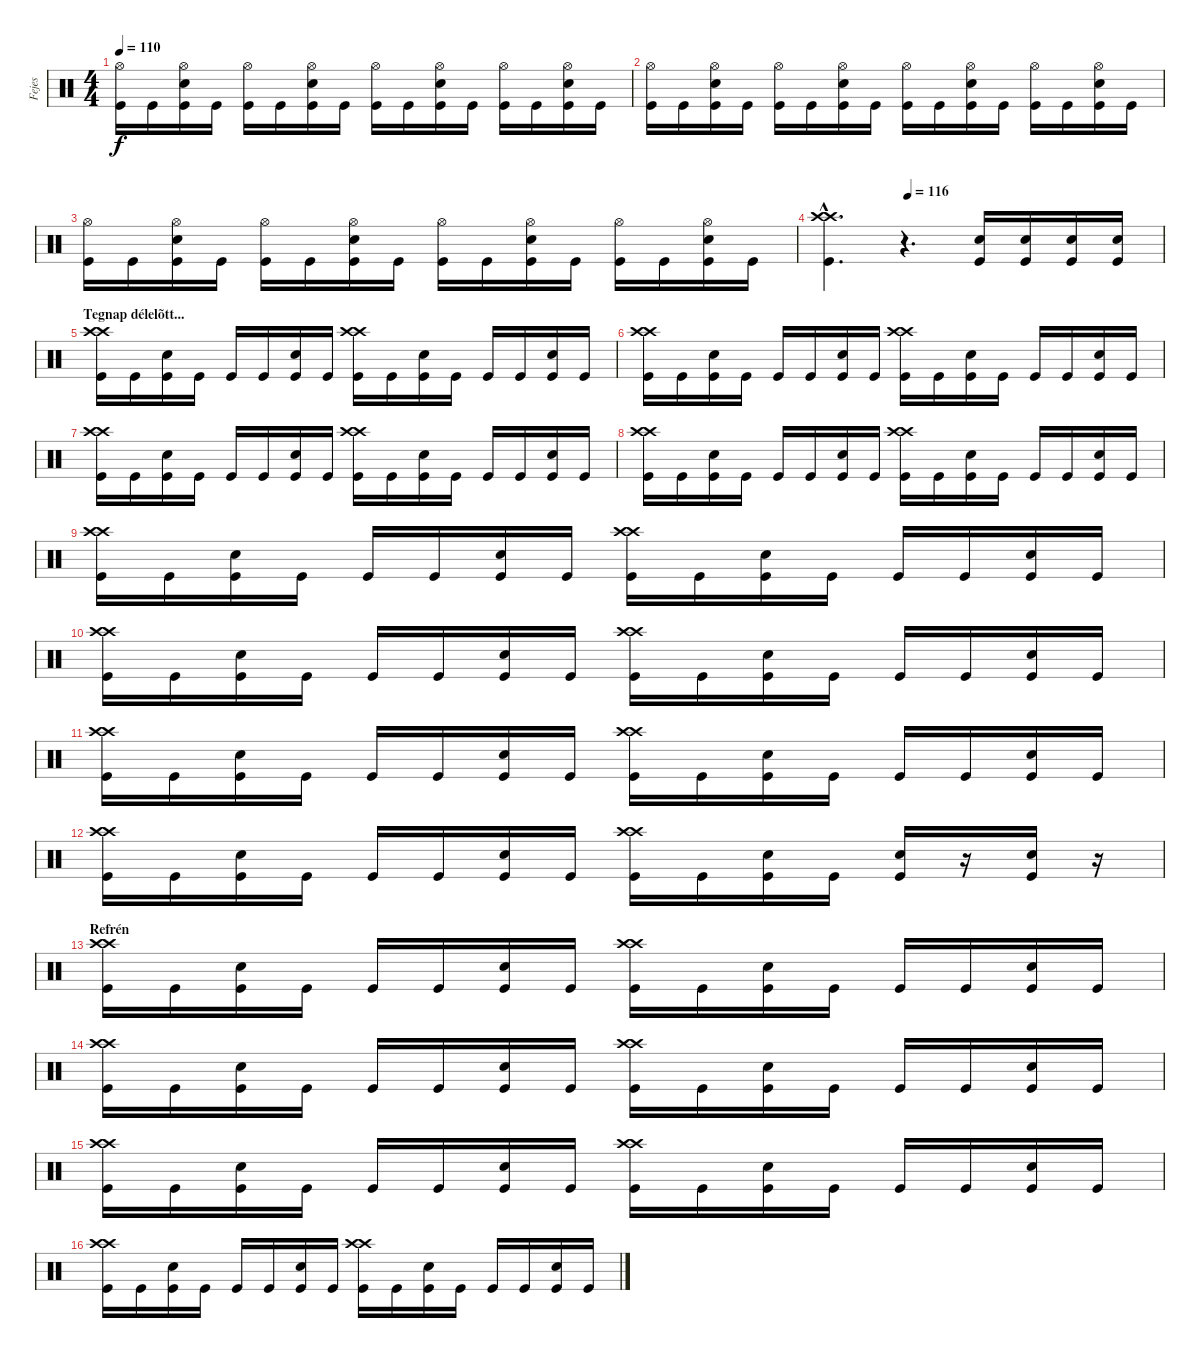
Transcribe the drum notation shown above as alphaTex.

\track ("Fejes" "Fejes") {instrument percussion}
\staff {score}
\articulation defaults
\ts (4 4)
\tempo 110
\clef neutral
\ks c
("Hi-Hat (open)" "Kick (hit)").16{dy f} "Kick (hit)".16 ("Hi-Hat (open)" "Snare (hit) 2" "Kick (hit)").16 "Kick (hit)".16 ("Hi-Hat (open)" "Kick (hit)").16 "Kick (hit)".16 ("Hi-Hat (open)" "Snare (hit) 2" "Kick (hit)").16 "Kick (hit)".16 ("Hi-Hat (open)" "Kick (hit)").16 "Kick (hit)".16 ("Hi-Hat (open)" "Snare (hit) 2" "Kick (hit)").16 "Kick (hit)".16 ("Hi-Hat (open)" "Kick (hit)").16 "Kick (hit)".16 ("Hi-Hat (open)" "Snare (hit) 2" "Kick (hit)").16 "Kick (hit)".16 |
("Hi-Hat (open)" "Kick (hit)").16 "Kick (hit)".16 ("Hi-Hat (open)" "Snare (hit) 2" "Kick (hit)").16 "Kick (hit)".16 ("Hi-Hat (open)" "Kick (hit)").16 "Kick (hit)".16 ("Hi-Hat (open)" "Snare (hit) 2" "Kick (hit)").16 "Kick (hit)".16 ("Hi-Hat (open)" "Kick (hit)").16 "Kick (hit)".16 ("Hi-Hat (open)" "Snare (hit) 2" "Kick (hit)").16 "Kick (hit)".16 ("Hi-Hat (open)" "Kick (hit)").16 "Kick (hit)".16 ("Hi-Hat (open)" "Snare (hit) 2" "Kick (hit)").16 "Kick (hit)".16 |
("Hi-Hat (open)" "Kick (hit)").16 "Kick (hit)".16 ("Hi-Hat (open)" "Snare (hit) 2" "Kick (hit)").16 "Kick (hit)".16 ("Hi-Hat (open)" "Kick (hit)").16 "Kick (hit)".16 ("Hi-Hat (open)" "Snare (hit) 2" "Kick (hit)").16 "Kick (hit)".16 ("Hi-Hat (open)" "Kick (hit)").16 "Kick (hit)".16 ("Hi-Hat (open)" "Snare (hit) 2" "Kick (hit)").16 "Kick (hit)".16 ("Hi-Hat (open)" "Kick (hit)").16 "Kick (hit)".16 ("Hi-Hat (open)" "Snare (hit) 2" "Kick (hit)").16 "Kick (hit)".16 |
\tempo (116 0.25)
("Crash high (hit)"{hac} "Crash high (hit)"{hac} "Kick (hit)"{hac}).4{d} r.4{d} ("Snare (hit) 2" "Kick (hit)").16 ("Snare (hit) 2" "Kick (hit)").16 ("Snare (hit) 2" "Kick (hit)").16 ("Snare (hit) 2" "Kick (hit)").16 |
\section ("" "Tegnap délelõtt...")
("Crash high (hit)" "Crash high (hit)" "Kick (hit)").16 "Kick (hit)".16 ("Snare (hit) 2" "Kick (hit)").16 "Kick (hit)".16 "Kick (hit)".16 "Kick (hit)".16 ("Snare (hit) 2" "Kick (hit)").16 "Kick (hit)".16 ("Crash high (hit)" "Crash high (hit)" "Kick (hit)").16 "Kick (hit)".16 ("Snare (hit) 2" "Kick (hit)").16 "Kick (hit)".16 "Kick (hit)".16 "Kick (hit)".16 ("Snare (hit) 2" "Kick (hit)").16 "Kick (hit)".16 |
("Crash high (hit)" "Crash high (hit)" "Kick (hit)").16 "Kick (hit)".16 ("Snare (hit) 2" "Kick (hit)").16 "Kick (hit)".16 "Kick (hit)".16 "Kick (hit)".16 ("Snare (hit) 2" "Kick (hit)").16 "Kick (hit)".16 ("Crash high (hit)" "Crash high (hit)" "Kick (hit)").16 "Kick (hit)".16 ("Snare (hit) 2" "Kick (hit)").16 "Kick (hit)".16 "Kick (hit)".16 "Kick (hit)".16 ("Snare (hit) 2" "Kick (hit)").16 "Kick (hit)".16 |
("Crash high (hit)" "Crash high (hit)" "Kick (hit)").16 "Kick (hit)".16 ("Snare (hit) 2" "Kick (hit)").16 "Kick (hit)".16 "Kick (hit)".16 "Kick (hit)".16 ("Snare (hit) 2" "Kick (hit)").16 "Kick (hit)".16 ("Crash high (hit)" "Crash high (hit)" "Kick (hit)").16 "Kick (hit)".16 ("Snare (hit) 2" "Kick (hit)").16 "Kick (hit)".16 "Kick (hit)".16 "Kick (hit)".16 ("Snare (hit) 2" "Kick (hit)").16 "Kick (hit)".16 |
("Crash high (hit)" "Crash high (hit)" "Kick (hit)").16 "Kick (hit)".16 ("Snare (hit) 2" "Kick (hit)").16 "Kick (hit)".16 "Kick (hit)".16 "Kick (hit)".16 ("Snare (hit) 2" "Kick (hit)").16 "Kick (hit)".16 ("Crash high (hit)" "Crash high (hit)" "Kick (hit)").16 "Kick (hit)".16 ("Snare (hit) 2" "Kick (hit)").16 "Kick (hit)".16 "Kick (hit)".16 "Kick (hit)".16 ("Snare (hit) 2" "Kick (hit)").16 "Kick (hit)".16 |
("Crash high (hit)" "Crash high (hit)" "Kick (hit)").16 "Kick (hit)".16 ("Snare (hit) 2" "Kick (hit)").16 "Kick (hit)".16 "Kick (hit)".16 "Kick (hit)".16 ("Snare (hit) 2" "Kick (hit)").16 "Kick (hit)".16 ("Crash high (hit)" "Crash high (hit)" "Kick (hit)").16 "Kick (hit)".16 ("Snare (hit) 2" "Kick (hit)").16 "Kick (hit)".16 "Kick (hit)".16 "Kick (hit)".16 ("Snare (hit) 2" "Kick (hit)").16 "Kick (hit)".16 |
("Crash high (hit)" "Crash high (hit)" "Kick (hit)").16 "Kick (hit)".16 ("Snare (hit) 2" "Kick (hit)").16 "Kick (hit)".16 "Kick (hit)".16 "Kick (hit)".16 ("Snare (hit) 2" "Kick (hit)").16 "Kick (hit)".16 ("Crash high (hit)" "Crash high (hit)" "Kick (hit)").16 "Kick (hit)".16 ("Snare (hit) 2" "Kick (hit)").16 "Kick (hit)".16 "Kick (hit)".16 "Kick (hit)".16 ("Snare (hit) 2" "Kick (hit)").16 "Kick (hit)".16 |
("Crash high (hit)" "Crash high (hit)" "Kick (hit)").16 "Kick (hit)".16 ("Snare (hit) 2" "Kick (hit)").16 "Kick (hit)".16 "Kick (hit)".16 "Kick (hit)".16 ("Snare (hit) 2" "Kick (hit)").16 "Kick (hit)".16 ("Crash high (hit)" "Crash high (hit)" "Kick (hit)").16 "Kick (hit)".16 ("Snare (hit) 2" "Kick (hit)").16 "Kick (hit)".16 "Kick (hit)".16 "Kick (hit)".16 ("Snare (hit) 2" "Kick (hit)").16 "Kick (hit)".16 |
("Crash high (hit)" "Crash high (hit)" "Kick (hit)").16 "Kick (hit)".16 ("Snare (hit) 2" "Kick (hit)").16 "Kick (hit)".16 "Kick (hit)".16 "Kick (hit)".16 ("Snare (hit) 2" "Kick (hit)").16 "Kick (hit)".16 ("Crash high (hit)" "Crash high (hit)" "Kick (hit)").16 "Kick (hit)".16 ("Snare (hit) 2" "Kick (hit)").16 "Kick (hit)".16 ("Snare (hit) 2" "Kick (hit)").16 r.16 ("Snare (hit) 2" "Kick (hit)").16 r.16 |
\section ("" "Refrén")
("Crash high (hit)" "Crash high (hit)" "Kick (hit)").16 "Kick (hit)".16 ("Snare (hit) 2" "Kick (hit)").16 "Kick (hit)".16 "Kick (hit)".16 "Kick (hit)".16 ("Snare (hit) 2" "Kick (hit)").16 "Kick (hit)".16 ("Crash high (hit)" "Crash high (hit)" "Kick (hit)").16 "Kick (hit)".16 ("Snare (hit) 2" "Kick (hit)").16 "Kick (hit)".16 "Kick (hit)".16 "Kick (hit)".16 ("Snare (hit) 2" "Kick (hit)").16 "Kick (hit)".16 |
("Crash high (hit)" "Crash high (hit)" "Kick (hit)").16 "Kick (hit)".16 ("Snare (hit) 2" "Kick (hit)").16 "Kick (hit)".16 "Kick (hit)".16 "Kick (hit)".16 ("Snare (hit) 2" "Kick (hit)").16 "Kick (hit)".16 ("Crash high (hit)" "Crash high (hit)" "Kick (hit)").16 "Kick (hit)".16 ("Snare (hit) 2" "Kick (hit)").16 "Kick (hit)".16 "Kick (hit)".16 "Kick (hit)".16 ("Snare (hit) 2" "Kick (hit)").16 "Kick (hit)".16 |
("Crash high (hit)" "Crash high (hit)" "Kick (hit)").16 "Kick (hit)".16 ("Snare (hit) 2" "Kick (hit)").16 "Kick (hit)".16 "Kick (hit)".16 "Kick (hit)".16 ("Snare (hit) 2" "Kick (hit)").16 "Kick (hit)".16 ("Crash high (hit)" "Crash high (hit)" "Kick (hit)").16 "Kick (hit)".16 ("Snare (hit) 2" "Kick (hit)").16 "Kick (hit)".16 "Kick (hit)".16 "Kick (hit)".16 ("Snare (hit) 2" "Kick (hit)").16 "Kick (hit)".16 |
("Crash high (hit)" "Crash high (hit)" "Kick (hit)").16 "Kick (hit)".16 ("Snare (hit) 2" "Kick (hit)").16 "Kick (hit)".16 "Kick (hit)".16 "Kick (hit)".16 ("Snare (hit) 2" "Kick (hit)").16 "Kick (hit)".16 ("Crash high (hit)" "Crash high (hit)" "Kick (hit)").16 "Kick (hit)".16 ("Snare (hit) 2" "Kick (hit)").16 "Kick (hit)".16 "Kick (hit)".16 "Kick (hit)".16 ("Snare (hit) 2" "Kick (hit)").16 "Kick (hit)".16
